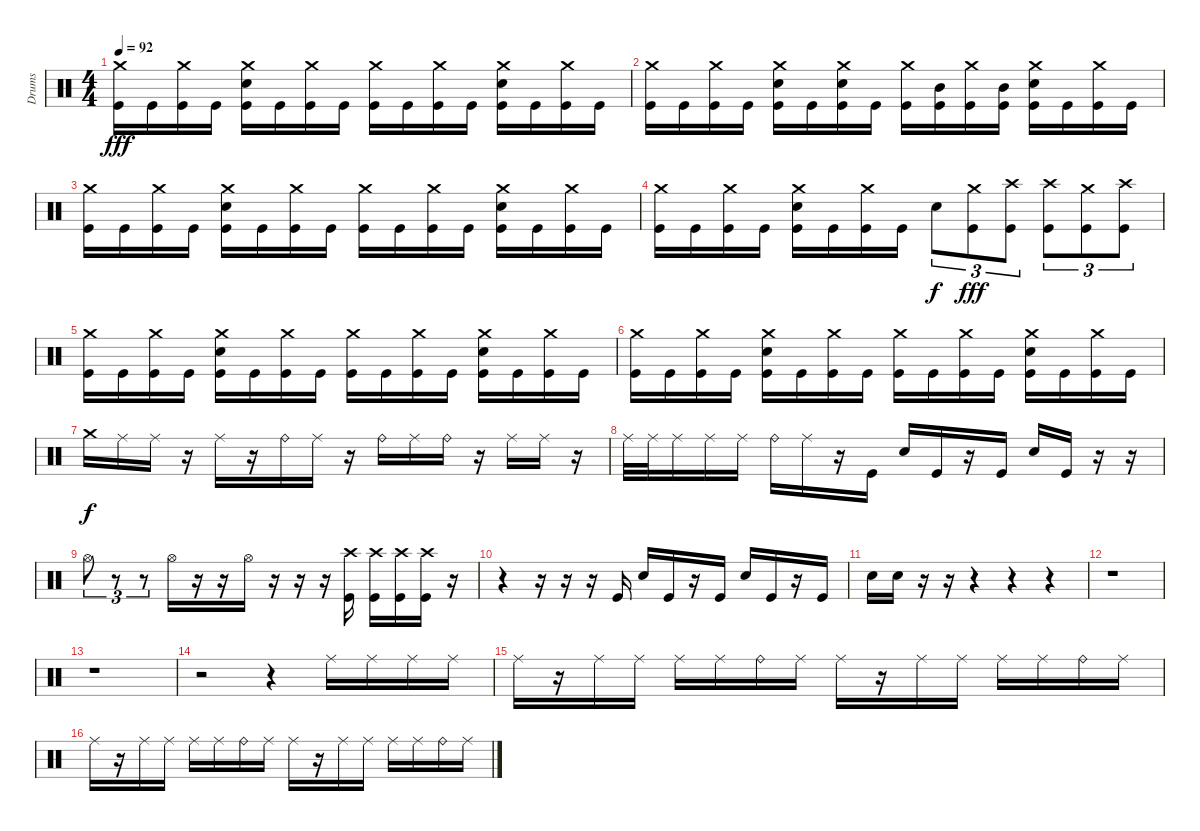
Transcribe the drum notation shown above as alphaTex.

\track ("Drums" "Drums") {instrument percussion}
\staff {score}
\articulation defaults
\ts (4 4)
\tempo 92
\clef neutral
\ks c
("Crash medium (hit)" "Kick (hit)").16{dy fff} "Kick (hit)".16 ("Crash medium (hit)" "Kick (hit)").16 "Kick (hit)".16 ("Crash medium (hit)" "Snare (hit) 2" "Kick (hit)").16 "Kick (hit)".16 ("Crash medium (hit)" "Kick (hit)").16 "Kick (hit)".16 ("Crash medium (hit)" "Kick (hit)").16 "Kick (hit)".16 ("Crash medium (hit)" "Kick (hit)").16 "Kick (hit)".16 ("Crash medium (hit)" "Snare (hit) 2" "Kick (hit)").16 "Kick (hit)".16 ("Crash medium (hit)" "Kick (hit)").16 "Kick (hit)".16 |
("Crash medium (hit)" "Kick (hit)").16 "Kick (hit)".16 ("Crash medium (hit)" "Kick (hit)").16 "Kick (hit)".16 ("Crash medium (hit)" "Snare (hit) 2" "Kick (hit)").16 "Kick (hit)".16 ("Crash medium (hit)" "Snare (hit) 2" "Kick (hit)").16 "Kick (hit)".16 ("Crash medium (hit)" "Kick (hit)").16 ("Mid Tom (hit)" "Kick (hit)").16 ("Crash medium (hit)" "Kick (hit)").16 ("Mid Tom (hit)" "Kick (hit)").16 ("Crash medium (hit)" "Snare (hit) 2" "Kick (hit)").16 "Kick (hit)".16 ("Crash medium (hit)" "Kick (hit)").16 "Kick (hit)".16 |
("Crash medium (hit)" "Kick (hit)").16 "Kick (hit)".16 ("Crash medium (hit)" "Kick (hit)").16 "Kick (hit)".16 ("Crash medium (hit)" "Snare (hit) 2" "Kick (hit)").16 "Kick (hit)".16 ("Crash medium (hit)" "Kick (hit)").16 "Kick (hit)".16 ("Crash medium (hit)" "Kick (hit)").16 "Kick (hit)".16 ("Crash medium (hit)" "Kick (hit)").16 "Kick (hit)".16 ("Crash medium (hit)" "Snare (hit) 2" "Kick (hit)").16 "Kick (hit)".16 ("Crash medium (hit)" "Kick (hit)").16 "Kick (hit)".16 |
("Crash medium (hit)" "Kick (hit)").16 "Kick (hit)".16 ("Crash medium (hit)" "Kick (hit)").16 "Kick (hit)".16 ("Crash medium (hit)" "Snare (hit) 2" "Kick (hit)").16 "Kick (hit)".16 ("Crash medium (hit)" "Kick (hit)").16 "Kick (hit)".16 "Snare (hit) 2".8{tu (3 2) dy f} ("Crash medium (hit)" "Kick (hit)").8{tu (3 2) dy fff} ("Crash high (hit)" "Kick (hit)").8{tu (3 2)} ("Crash high (hit)" "Kick (hit)").8{tu (3 2)} ("Crash medium (hit)" "Kick (hit)").8{tu (3 2)} ("Crash high (hit)" "Kick (hit)").8{tu (3 2)} |
("Crash medium (hit)" "Kick (hit)").16 "Kick (hit)".16 ("Crash medium (hit)" "Kick (hit)").16 "Kick (hit)".16 ("Crash medium (hit)" "Snare (hit) 2" "Kick (hit)").16 "Kick (hit)".16 ("Crash medium (hit)" "Kick (hit)").16 "Kick (hit)".16 ("Crash medium (hit)" "Kick (hit)").16 "Kick (hit)".16 ("Crash medium (hit)" "Kick (hit)").16 "Kick (hit)".16 ("Crash medium (hit)" "Snare (hit) 2" "Kick (hit)").16 "Kick (hit)".16 ("Crash medium (hit)" "Kick (hit)").16 "Kick (hit)".16 |
("Crash medium (hit)" "Kick (hit)").16 "Kick (hit)".16 ("Crash medium (hit)" "Kick (hit)").16 "Kick (hit)".16 ("Crash medium (hit)" "Snare (hit) 2" "Kick (hit)").16 "Kick (hit)".16 ("Crash medium (hit)" "Kick (hit)").16 "Kick (hit)".16 ("Crash medium (hit)" "Kick (hit)").16 "Kick (hit)".16 ("Crash medium (hit)" "Kick (hit)").16 "Kick (hit)".16 ("Crash medium (hit)" "Snare (hit) 2" "Kick (hit)").16 "Kick (hit)".16 ("Crash medium (hit)" "Kick (hit)").16 "Kick (hit)".16 |
"Crash medium (hit)".16{dy f} "Ride (middle)".16 "Ride (middle)".16 r.16 "Ride (middle)".16 r.16 "Ride (bell)".16 "Ride (middle)".16 r.16 "Ride (bell)".16 "Ride (middle)".16 "Ride (bell)".16 r.16 "Ride (middle)".16 "Ride (middle)".16 r.16 |
"Ride (middle)".32 "Ride (middle)".32 "Ride (middle)".16 "Ride (middle)".16 "Ride (middle)".16 "Ride (bell)".16 "Ride (middle)".16 r.16 "Kick (hit)".16 "Snare (hit) 2".16 "Kick (hit)".16 r.16 "Kick (hit)".16 "Snare (hit) 2".16 "Kick (hit)".16 r.16 r.16 |
"Hi-Hat (open)".8{tu (3 2)} r.8{tu (3 2)} r.8{tu (3 2)} "Hi-Hat (open)".16 r.16 r.16 "Hi-Hat (open)".16 r.16 r.16 r.16 ("Crash high (hit)" "Kick (hit)").16 ("Crash high (hit)" "Kick (hit)").16 ("Crash high (hit)" "Kick (hit)").16 ("Crash high (hit)" "Kick (hit)").16 r.16 |
r.4 r.16 r.16 r.16 "Kick (hit)".16 "Snare (hit) 2".16 "Kick (hit)".16 r.16 "Kick (hit)".16 "Snare (hit) 2".16 "Kick (hit)".16 r.16 "Kick (hit)".16 |
"Snare (hit) 2".16 "Snare (hit) 2".16 r.16 r.16 r.4 r.4 r.4 |
r.1 |
r.1 |
r.2 r.4 "Ride (middle)".16 "Ride (middle)".16 "Ride (middle)".16 "Ride (middle)".16 |
"Ride (middle)".16 r.16 "Ride (middle)".16 "Ride (middle)".16 "Ride (middle)".16 "Ride (middle)".16 "Ride (bell)".16 "Ride (middle)".16 "Ride (middle)".16 r.16 "Ride (middle)".16 "Ride (middle)".16 "Ride (middle)".16 "Ride (middle)".16 "Ride (bell)".16 "Ride (middle)".16 |
"Ride (middle)".16 r.16 "Ride (middle)".16 "Ride (middle)".16 "Ride (middle)".16 "Ride (middle)".16 "Ride (bell)".16 "Ride (middle)".16 "Ride (middle)".16 r.16 "Ride (middle)".16 "Ride (middle)".16 "Ride (middle)".16 "Ride (middle)".16 "Ride (bell)".16 "Ride (middle)".16
